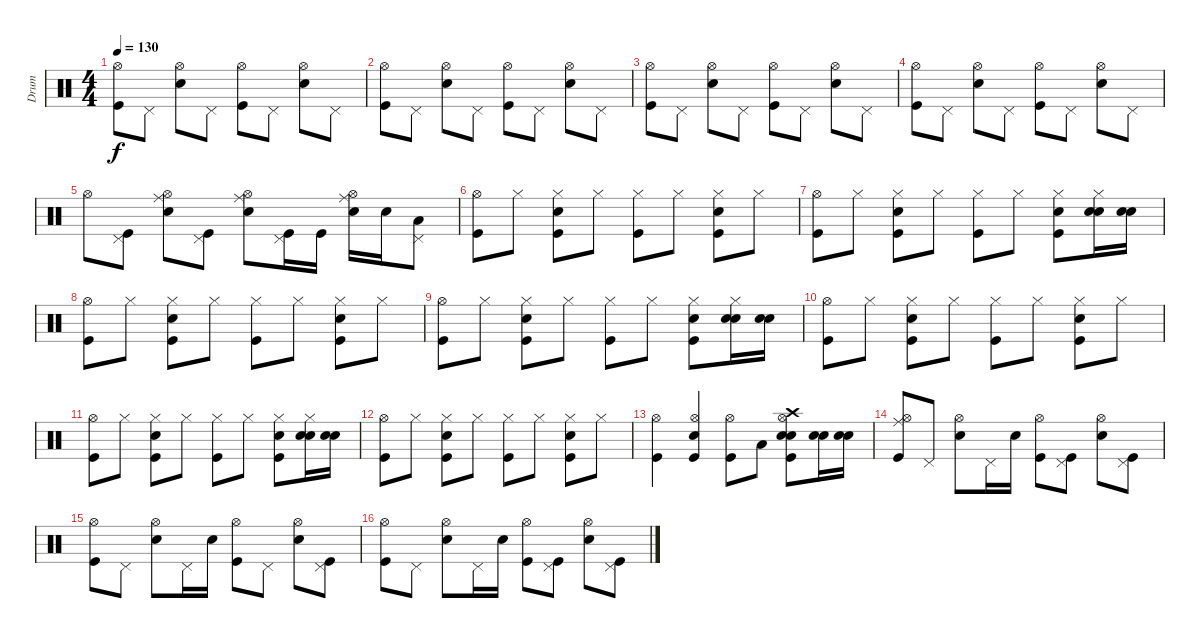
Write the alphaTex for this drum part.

\track ("Drum" "Drum") {instrument percussion}
\staff {score}
\articulation defaults
\ts (4 4)
\tempo 130
\clef neutral
\ks c
("Kick (hit)" "Hi-Hat (open)").8{dy f} "Pedal Hi-Hat (hit)".8 ("Snare (hit) 2" "Hi-Hat (open)").8 "Pedal Hi-Hat (hit)".8 ("Kick (hit)" "Hi-Hat (open)").8 "Pedal Hi-Hat (hit)".8 ("Snare (hit) 2" "Hi-Hat (open)").8 "Pedal Hi-Hat (hit)".8 |
("Kick (hit)" "Hi-Hat (open)").8 "Pedal Hi-Hat (hit)".8 ("Snare (hit) 2" "Hi-Hat (open)").8 "Pedal Hi-Hat (hit)".8 ("Kick (hit)" "Hi-Hat (open)").8 "Pedal Hi-Hat (hit)".8 ("Snare (hit) 2" "Hi-Hat (open)").8 "Pedal Hi-Hat (hit)".8 |
("Kick (hit)" "Hi-Hat (open)").8 "Pedal Hi-Hat (hit)".8 ("Snare (hit) 2" "Hi-Hat (open)").8 "Pedal Hi-Hat (hit)".8 ("Kick (hit)" "Hi-Hat (open)").8 "Pedal Hi-Hat (hit)".8 ("Snare (hit) 2" "Hi-Hat (open)").8 "Pedal Hi-Hat (hit)".8 |
("Kick (hit)" "Hi-Hat (open)").8 "Pedal Hi-Hat (hit)".8 ("Snare (hit) 2" "Hi-Hat (open)").8 "Pedal Hi-Hat (hit)".8 ("Kick (hit)" "Hi-Hat (open)").8 "Pedal Hi-Hat (hit)".8 ("Snare (hit) 2" "Hi-Hat (open)").8 "Pedal Hi-Hat (hit)".8 |
"Hi-Hat (open)".8 ("Kick (hit)" "Pedal Hi-Hat (hit)").8 ("Snare (hit) 2" "Hi-Hat (open)" "Ride (middle)").8 ("Pedal Hi-Hat (hit)" "Kick (hit)").8 ("Snare (hit) 2" "Hi-Hat (open)" "Ride (middle)").8 ("Pedal Hi-Hat (hit)" "Kick (hit)").16 "Kick (hit)".16 ("Snare (hit) 2" "Hi-Hat (open)" "Ride (middle)").16 "Snare (hit) 2".16 ("Low Floor Tom (hit)" "Pedal Hi-Hat (hit)").8 |
("Kick (hit)" "Hi-Hat (open)").8 "Hi-Hat (closed)".8 ("Kick (hit)" "Snare (hit) 2" "Hi-Hat (closed)").8 "Hi-Hat (closed)".8 ("Hi-Hat (closed)" "Kick (hit)").8 "Hi-Hat (closed)".8 ("Kick (hit)" "Snare (hit) 2" "Hi-Hat (closed)").8 "Hi-Hat (closed)".8 |
("Kick (hit)" "Hi-Hat (open)").8 "Hi-Hat (closed)".8 ("Kick (hit)" "Snare (hit) 2" "Hi-Hat (closed)").8 "Hi-Hat (closed)".8 ("Hi-Hat (closed)" "Kick (hit)").8 "Hi-Hat (closed)".8 ("Kick (hit)" "Snare (hit) 2" "Hi-Hat (closed)").8 ("Snare (hit) 2" "Snare (hit) 2" "Hi-Hat (closed)").16 ("Snare (hit) 2" "Snare (hit) 2").16 |
("Kick (hit)" "Hi-Hat (open)").8 "Hi-Hat (closed)".8 ("Kick (hit)" "Snare (hit) 2" "Hi-Hat (closed)").8 "Hi-Hat (closed)".8 ("Hi-Hat (closed)" "Kick (hit)").8 "Hi-Hat (closed)".8 ("Kick (hit)" "Snare (hit) 2" "Hi-Hat (closed)").8 "Hi-Hat (closed)".8 |
("Kick (hit)" "Hi-Hat (open)").8 "Hi-Hat (closed)".8 ("Kick (hit)" "Snare (hit) 2" "Hi-Hat (closed)").8 "Hi-Hat (closed)".8 ("Hi-Hat (closed)" "Kick (hit)").8 "Hi-Hat (closed)".8 ("Kick (hit)" "Snare (hit) 2" "Hi-Hat (closed)").8 ("Snare (hit) 2" "Snare (hit) 2" "Hi-Hat (closed)").16 ("Snare (hit) 2" "Snare (hit) 2").16 |
("Kick (hit)" "Hi-Hat (open)").8 "Hi-Hat (closed)".8 ("Kick (hit)" "Snare (hit) 2" "Hi-Hat (closed)").8 "Hi-Hat (closed)".8 ("Hi-Hat (closed)" "Kick (hit)").8 "Hi-Hat (closed)".8 ("Kick (hit)" "Snare (hit) 2" "Hi-Hat (closed)").8 "Hi-Hat (closed)".8 |
("Kick (hit)" "Hi-Hat (open)").8 "Hi-Hat (closed)".8 ("Kick (hit)" "Snare (hit) 2" "Hi-Hat (closed)").8 "Hi-Hat (closed)".8 ("Hi-Hat (closed)" "Kick (hit)").8 "Hi-Hat (closed)".8 ("Kick (hit)" "Snare (hit) 2" "Hi-Hat (closed)").8 ("Snare (hit) 2" "Snare (hit) 2" "Hi-Hat (closed)").16 ("Snare (hit) 2" "Snare (hit) 2").16 |
("Kick (hit)" "Hi-Hat (open)").8 "Hi-Hat (closed)".8 ("Kick (hit)" "Snare (hit) 2" "Hi-Hat (closed)").8 "Hi-Hat (closed)".8 ("Hi-Hat (closed)" "Kick (hit)").8 "Hi-Hat (closed)".8 ("Kick (hit)" "Snare (hit) 2" "Hi-Hat (closed)").8 "Hi-Hat (closed)".8 |
("Kick (hit)" "Hi-Hat (open)").4 ("Kick (hit)" "Snare (hit) 2" "Hi-Hat (open)").4 ("Kick (hit)" "Hi-Hat (open)").8 "Low Tom (hit)".8 ("Kick (hit)" "Snare (hit) 2" "Hi-Hat (open)" "Crash high (hit)" "Snare (hit) 2").8 ("Snare (hit) 2" "Snare (hit) 2").16 ("Snare (hit) 2" "Snare (hit) 2").16 |
("Kick (hit)" "Hi-Hat (open)" "Ride (middle)").8 "Pedal Hi-Hat (hit)".8 ("Snare (hit) 2" "Hi-Hat (open)").8 "Pedal Hi-Hat (hit)".16 "Snare (hit) 2".16 ("Kick (hit)" "Hi-Hat (open)").8 ("Kick (hit)" "Pedal Hi-Hat (hit)").8 ("Snare (hit) 2" "Hi-Hat (open)").8 ("Kick (hit)" "Pedal Hi-Hat (hit)").8 |
("Kick (hit)" "Hi-Hat (open)").8 "Pedal Hi-Hat (hit)".8 ("Snare (hit) 2" "Hi-Hat (open)").8 "Pedal Hi-Hat (hit)".16 "Snare (hit) 2".16 ("Kick (hit)" "Hi-Hat (open)").8 "Pedal Hi-Hat (hit)".8 ("Snare (hit) 2" "Hi-Hat (open)").8 ("Kick (hit)" "Pedal Hi-Hat (hit)").8 |
("Kick (hit)" "Hi-Hat (open)").8 "Pedal Hi-Hat (hit)".8 ("Snare (hit) 2" "Hi-Hat (open)").8 "Pedal Hi-Hat (hit)".16 "Snare (hit) 2".16 ("Kick (hit)" "Hi-Hat (open)").8 ("Kick (hit)" "Pedal Hi-Hat (hit)").8 ("Snare (hit) 2" "Hi-Hat (open)").8 ("Kick (hit)" "Pedal Hi-Hat (hit)").8
